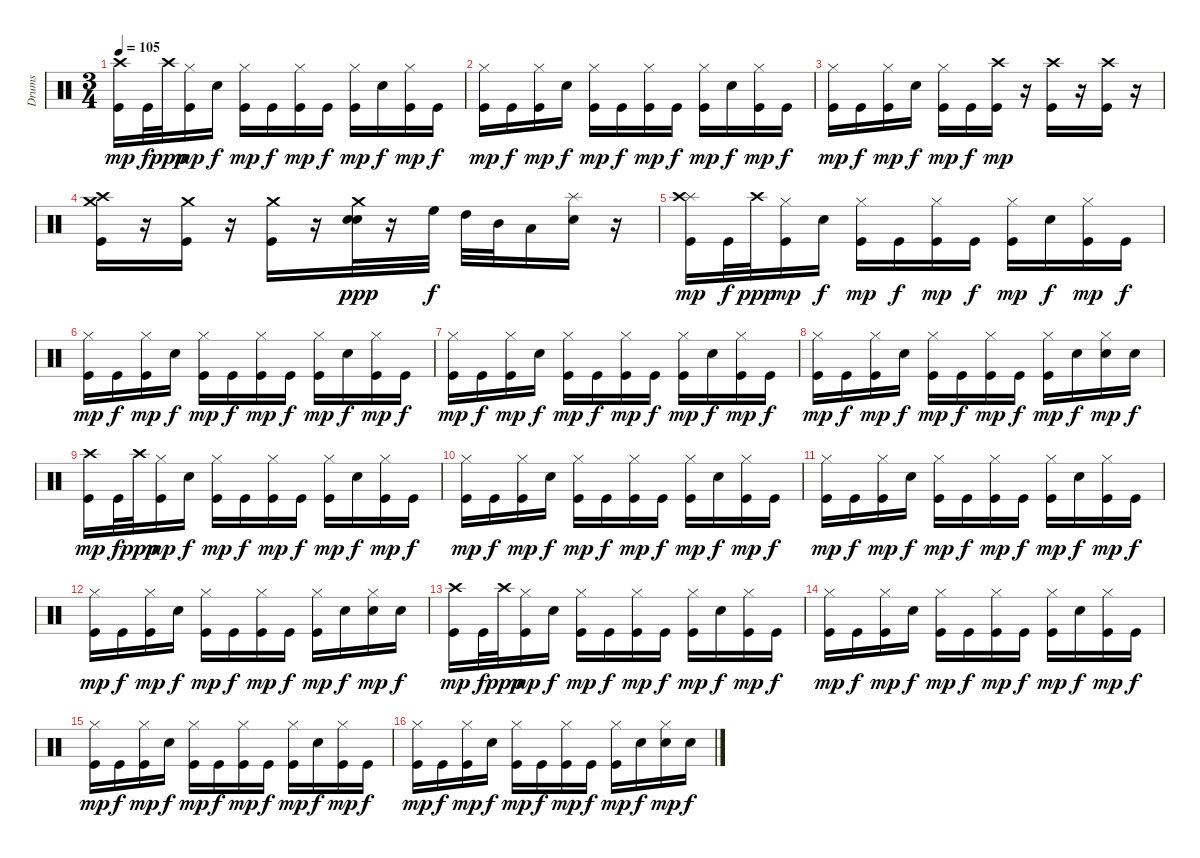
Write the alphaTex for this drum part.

\track ("Drums" "Drums") {instrument percussion}
\staff {score}
\articulation defaults
\ts (3 4)
\tempo 105
\clef neutral
\ks c
("Crash high (hit)" "Kick (hit)").16{dy mp} "Kick (hit)".32{dy f} "Crash high (hit)".32{dy ppp} ("Hi-Hat (closed)" "Kick (hit)").16{dy mp} "Snare (hit) 2".16{dy f} ("Hi-Hat (closed)" "Kick (hit)").16{dy mp} "Kick (hit)".16{dy f} ("Hi-Hat (closed)" "Kick (hit)").16{dy mp} "Kick (hit)".16{dy f} ("Hi-Hat (closed)" "Kick (hit)").16{dy mp} "Snare (hit) 2".16{dy f} ("Hi-Hat (closed)" "Kick (hit)").16{dy mp} "Kick (hit)".16{dy f} |
("Hi-Hat (closed)" "Kick (hit)").16{dy mp} "Kick (hit)".16{dy f} ("Hi-Hat (closed)" "Kick (hit)").16{dy mp} "Snare (hit) 2".16{dy f} ("Hi-Hat (closed)" "Kick (hit)").16{dy mp} "Kick (hit)".16{dy f} ("Hi-Hat (closed)" "Kick (hit)").16{dy mp} "Kick (hit)".16{dy f} ("Hi-Hat (closed)" "Kick (hit)").16{dy mp} "Snare (hit) 2".16{dy f} ("Hi-Hat (closed)" "Kick (hit)").16{dy mp} "Kick (hit)".16{dy f} |
("Hi-Hat (closed)" "Kick (hit)").16{dy mp} "Kick (hit)".16{dy f} ("Hi-Hat (closed)" "Kick (hit)").16{dy mp} "Snare (hit) 2".16{dy f} ("Hi-Hat (closed)" "Kick (hit)").16{dy mp} "Kick (hit)".16{dy f} ("Crash high (hit)" "Kick (hit)").16{dy mp} r.16 ("Crash high (hit)" "Kick (hit)").16 r.16 ("Crash high (hit)" "Kick (hit)").16 r.16 |
("Crash high (hit)" "Kick (hit)" "Crash medium (hit)").16 r.16 ("Crash medium (hit)" "Kick (hit)").16 r.16 ("Crash medium (hit)" "Kick (hit)").16 r.16 ("Crash medium (hit)" "Snare (hit) 2" "Snare (hit) 2").32{dy ppp} r.16 "High Floor Tom (hit)".32{dy f} "High Tom (hit)".32 "Mid Tom (hit)".32 "Low Tom (hit)".16 ("Splash (hit)" "Snare (hit) 2").16 r.16 |
("Splash (hit)" "Crash high (hit)" "Kick (hit)").16{dy mp} "Kick (hit)".32{dy f} "Crash high (hit)".32{dy ppp} ("Hi-Hat (closed)" "Kick (hit)").16{dy mp} "Snare (hit) 2".16{dy f} ("Hi-Hat (closed)" "Kick (hit)").16{dy mp} "Kick (hit)".16{dy f} ("Hi-Hat (closed)" "Kick (hit)").16{dy mp} "Kick (hit)".16{dy f} ("Hi-Hat (closed)" "Kick (hit)").16{dy mp} "Snare (hit) 2".16{dy f} ("Hi-Hat (closed)" "Kick (hit)").16{dy mp} "Kick (hit)".16{dy f} |
("Hi-Hat (closed)" "Kick (hit)").16{dy mp} "Kick (hit)".16{dy f} ("Hi-Hat (closed)" "Kick (hit)").16{dy mp} "Snare (hit) 2".16{dy f} ("Hi-Hat (closed)" "Kick (hit)").16{dy mp} "Kick (hit)".16{dy f} ("Hi-Hat (closed)" "Kick (hit)").16{dy mp} "Kick (hit)".16{dy f} ("Hi-Hat (closed)" "Kick (hit)").16{dy mp} "Snare (hit) 2".16{dy f} ("Hi-Hat (closed)" "Kick (hit)").16{dy mp} "Kick (hit)".16{dy f} |
("Hi-Hat (closed)" "Kick (hit)").16{dy mp} "Kick (hit)".16{dy f} ("Hi-Hat (closed)" "Kick (hit)").16{dy mp} "Snare (hit) 2".16{dy f} ("Hi-Hat (closed)" "Kick (hit)").16{dy mp} "Kick (hit)".16{dy f} ("Hi-Hat (closed)" "Kick (hit)").16{dy mp} "Kick (hit)".16{dy f} ("Hi-Hat (closed)" "Kick (hit)").16{dy mp} "Snare (hit) 2".16{dy f} ("Hi-Hat (closed)" "Kick (hit)").16{dy mp} "Kick (hit)".16{dy f} |
("Hi-Hat (closed)" "Kick (hit)").16{dy mp} "Kick (hit)".16{dy f} ("Hi-Hat (closed)" "Kick (hit)").16{dy mp} "Snare (hit) 2".16{dy f} ("Hi-Hat (closed)" "Kick (hit)").16{dy mp} "Kick (hit)".16{dy f} ("Hi-Hat (closed)" "Kick (hit)").16{dy mp} "Kick (hit)".16{dy f} ("Hi-Hat (closed)" "Kick (hit)").16{dy mp} "Snare (hit) 2".16{dy f} ("Hi-Hat (closed)" "Snare (hit) 2").16{dy mp} "Snare (hit) 2".16{dy f} |
("Crash high (hit)" "Kick (hit)").16{dy mp} "Kick (hit)".32{dy f} "Crash high (hit)".32{dy ppp} ("Hi-Hat (closed)" "Kick (hit)").16{dy mp} "Snare (hit) 2".16{dy f} ("Hi-Hat (closed)" "Kick (hit)").16{dy mp} "Kick (hit)".16{dy f} ("Hi-Hat (closed)" "Kick (hit)").16{dy mp} "Kick (hit)".16{dy f} ("Hi-Hat (closed)" "Kick (hit)").16{dy mp} "Snare (hit) 2".16{dy f} ("Hi-Hat (closed)" "Kick (hit)").16{dy mp} "Kick (hit)".16{dy f} |
("Hi-Hat (closed)" "Kick (hit)").16{dy mp} "Kick (hit)".16{dy f} ("Hi-Hat (closed)" "Kick (hit)").16{dy mp} "Snare (hit) 2".16{dy f} ("Hi-Hat (closed)" "Kick (hit)").16{dy mp} "Kick (hit)".16{dy f} ("Hi-Hat (closed)" "Kick (hit)").16{dy mp} "Kick (hit)".16{dy f} ("Hi-Hat (closed)" "Kick (hit)").16{dy mp} "Snare (hit) 2".16{dy f} ("Hi-Hat (closed)" "Kick (hit)").16{dy mp} "Kick (hit)".16{dy f} |
("Hi-Hat (closed)" "Kick (hit)").16{dy mp} "Kick (hit)".16{dy f} ("Hi-Hat (closed)" "Kick (hit)").16{dy mp} "Snare (hit) 2".16{dy f} ("Hi-Hat (closed)" "Kick (hit)").16{dy mp} "Kick (hit)".16{dy f} ("Hi-Hat (closed)" "Kick (hit)").16{dy mp} "Kick (hit)".16{dy f} ("Hi-Hat (closed)" "Kick (hit)").16{dy mp} "Snare (hit) 2".16{dy f} ("Hi-Hat (closed)" "Kick (hit)").16{dy mp} "Kick (hit)".16{dy f} |
("Hi-Hat (closed)" "Kick (hit)").16{dy mp} "Kick (hit)".16{dy f} ("Hi-Hat (closed)" "Kick (hit)").16{dy mp} "Snare (hit) 2".16{dy f} ("Hi-Hat (closed)" "Kick (hit)").16{dy mp} "Kick (hit)".16{dy f} ("Hi-Hat (closed)" "Kick (hit)").16{dy mp} "Kick (hit)".16{dy f} ("Hi-Hat (closed)" "Kick (hit)").16{dy mp} "Snare (hit) 2".16{dy f} ("Hi-Hat (closed)" "Snare (hit) 2").16{dy mp} "Snare (hit) 2".16{dy f} |
("Crash high (hit)" "Kick (hit)").16{dy mp} "Kick (hit)".32{dy f} "Crash high (hit)".32{dy ppp} ("Hi-Hat (closed)" "Kick (hit)").16{dy mp} "Snare (hit) 2".16{dy f} ("Hi-Hat (closed)" "Kick (hit)").16{dy mp} "Kick (hit)".16{dy f} ("Hi-Hat (closed)" "Kick (hit)").16{dy mp} "Kick (hit)".16{dy f} ("Hi-Hat (closed)" "Kick (hit)").16{dy mp} "Snare (hit) 2".16{dy f} ("Hi-Hat (closed)" "Kick (hit)").16{dy mp} "Kick (hit)".16{dy f} |
("Hi-Hat (closed)" "Kick (hit)").16{dy mp} "Kick (hit)".16{dy f} ("Hi-Hat (closed)" "Kick (hit)").16{dy mp} "Snare (hit) 2".16{dy f} ("Hi-Hat (closed)" "Kick (hit)").16{dy mp} "Kick (hit)".16{dy f} ("Hi-Hat (closed)" "Kick (hit)").16{dy mp} "Kick (hit)".16{dy f} ("Hi-Hat (closed)" "Kick (hit)").16{dy mp} "Snare (hit) 2".16{dy f} ("Hi-Hat (closed)" "Kick (hit)").16{dy mp} "Kick (hit)".16{dy f} |
("Hi-Hat (closed)" "Kick (hit)").16{dy mp} "Kick (hit)".16{dy f} ("Hi-Hat (closed)" "Kick (hit)").16{dy mp} "Snare (hit) 2".16{dy f} ("Hi-Hat (closed)" "Kick (hit)").16{dy mp} "Kick (hit)".16{dy f} ("Hi-Hat (closed)" "Kick (hit)").16{dy mp} "Kick (hit)".16{dy f} ("Hi-Hat (closed)" "Kick (hit)").16{dy mp} "Snare (hit) 2".16{dy f} ("Hi-Hat (closed)" "Kick (hit)").16{dy mp} "Kick (hit)".16{dy f} |
("Hi-Hat (closed)" "Kick (hit)").16{dy mp} "Kick (hit)".16{dy f} ("Hi-Hat (closed)" "Kick (hit)").16{dy mp} "Snare (hit) 2".16{dy f} ("Hi-Hat (closed)" "Kick (hit)").16{dy mp} "Kick (hit)".16{dy f} ("Hi-Hat (closed)" "Kick (hit)").16{dy mp} "Kick (hit)".16{dy f} ("Hi-Hat (closed)" "Kick (hit)").16{dy mp} "Snare (hit) 2".16{dy f} ("Hi-Hat (closed)" "Snare (hit) 2").16{dy mp} "Snare (hit) 2".16{dy f}
